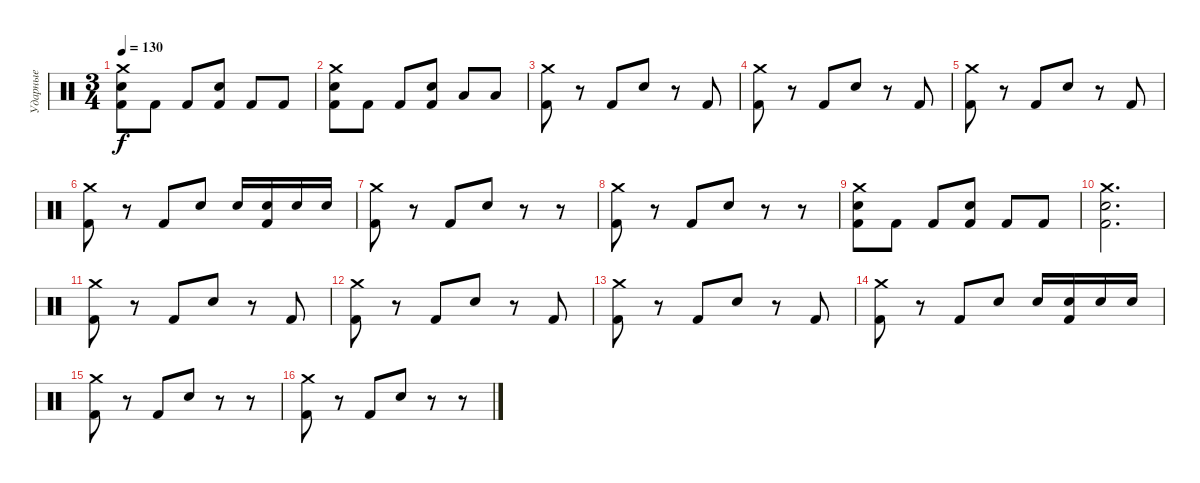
\track ("Ударные" "Ударные") {instrument percussion}
\staff {score}
\articulation defaults
\ts (3 4)
\tempo 130
\clef neutral
\ks c
("Crash medium (hit)" "Electric Snare (hit)" "Kick (hit) 2").8{dy f} "Kick (hit) 2".8 "Kick (hit) 2".8 ("Electric Snare (hit)" "Kick (hit) 2").8 "Kick (hit) 2".8 "Kick (hit) 2".8 |
("Crash medium (hit)" "Electric Snare (hit)" "Kick (hit) 2").8 "Kick (hit) 2".8 "Kick (hit) 2".8 ("Electric Snare (hit)" "Kick (hit) 2").8 "Low Floor Tom (hit)".8 "Low Floor Tom (hit)".8 |
("Crash medium (hit)" "Kick (hit) 2").8 r.8 "Kick (hit) 2".8 "Electric Snare (hit)".8 r.8 "Kick (hit) 2".8 |
("Crash medium (hit)" "Kick (hit) 2").8 r.8 "Kick (hit) 2".8 "Electric Snare (hit)".8 r.8 "Kick (hit) 2".8 |
("Crash medium (hit)" "Kick (hit) 2").8 r.8 "Kick (hit) 2".8 "Electric Snare (hit)".8 r.8 "Kick (hit) 2".8 |
("Crash medium (hit)" "Kick (hit) 2").8 r.8 "Kick (hit) 2".8 "Electric Snare (hit)".8 "Electric Snare (hit)".16 ("Electric Snare (hit)" "Kick (hit) 2").16 "Electric Snare (hit)".16 "Electric Snare (hit)".16 |
("Crash medium (hit)" "Kick (hit) 2").8 r.8 "Kick (hit) 2".8 "Electric Snare (hit)".8 r.8 r.8 |
("Crash medium (hit)" "Kick (hit) 2").8 r.8 "Kick (hit) 2".8 "Electric Snare (hit)".8 r.8 r.8 |
("Crash medium (hit)" "Electric Snare (hit)" "Kick (hit) 2").8 "Kick (hit) 2".8 "Kick (hit) 2".8 ("Electric Snare (hit)" "Kick (hit) 2").8 "Kick (hit) 2".8 "Kick (hit) 2".8 |
("Crash medium (hit)" "Electric Snare (hit)" "Kick (hit) 2").2{d} |
("Crash medium (hit)" "Kick (hit) 2").8 r.8 "Kick (hit) 2".8 "Electric Snare (hit)".8 r.8 "Kick (hit) 2".8 |
("Crash medium (hit)" "Kick (hit) 2").8 r.8 "Kick (hit) 2".8 "Electric Snare (hit)".8 r.8 "Kick (hit) 2".8 |
("Crash medium (hit)" "Kick (hit) 2").8 r.8 "Kick (hit) 2".8 "Electric Snare (hit)".8 r.8 "Kick (hit) 2".8 |
("Crash medium (hit)" "Kick (hit) 2").8 r.8 "Kick (hit) 2".8 "Electric Snare (hit)".8 "Electric Snare (hit)".16 ("Electric Snare (hit)" "Kick (hit) 2").16 "Electric Snare (hit)".16 "Electric Snare (hit)".16 |
("Crash medium (hit)" "Kick (hit) 2").8 r.8 "Kick (hit) 2".8 "Electric Snare (hit)".8 r.8 r.8 |
("Crash medium (hit)" "Kick (hit) 2").8 r.8 "Kick (hit) 2".8 "Electric Snare (hit)".8 r.8 r.8
